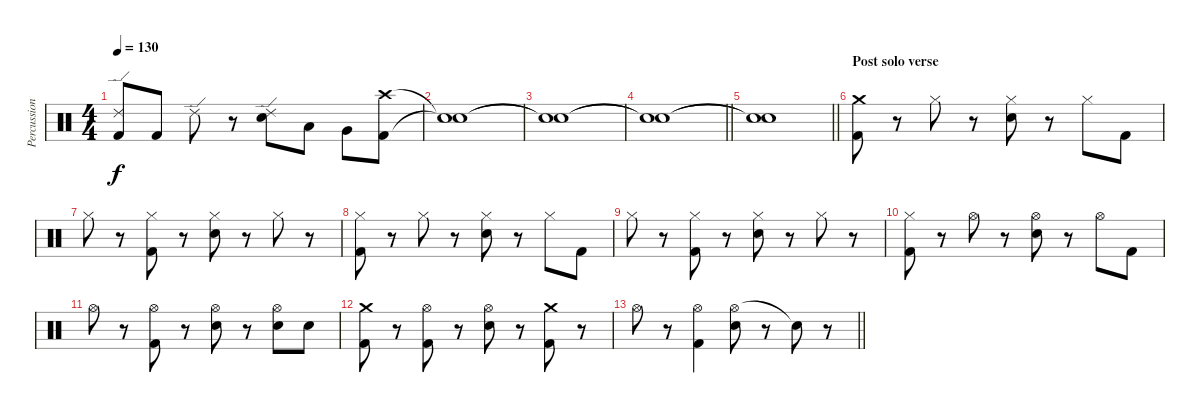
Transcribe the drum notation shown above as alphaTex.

\track ("Percussion" "Percussion") {instrument percussion}
\staff {score}
\articulation defaults
\ts (4 4)
\tempo 130
\clef neutral
\ks c
("Ride (edge) 2" "Kick (hit) 2").8{dy f} "Kick (hit) 2".8 "Ride (edge) 2".8 r.8 ("Ride (edge) 2" "Electric Snare (hit)").8 "Low Tom (hit)".8 "Very Low Tom (hit)".8 ("Crash high (hit)" "Kick (hit) 2").8 |
("Snare (hit)"{t} "Snare (hit)"{t}).1 |
("Snare (hit)"{t} "Snare (hit)"{t}).1 |
\barLineRight lightlight
("Snare (hit)"{t} "Snare (hit)"{t}).1 |
\barLineRight lightlight
("Snare (hit)"{t} "Snare (hit)"{t}).1 |
\section ("" "Post solo verse")
("Crash medium (hit)" "Kick (hit) 2").8 r.8 "Hi-Hat (closed)".8 r.8 ("Hi-Hat (closed)" "Electric Snare (hit)").8 r.8 "Hi-Hat (closed)".8 "Kick (hit) 2".8 |
"Hi-Hat (closed)".8 r.8 ("Hi-Hat (closed)" "Kick (hit) 2").8 r.8 ("Hi-Hat (closed)" "Electric Snare (hit)").8 r.8 "Hi-Hat (closed)".8 r.8 |
("Hi-Hat (closed)" "Kick (hit) 2").8 r.8 "Hi-Hat (closed)".8 r.8 ("Hi-Hat (closed)" "Electric Snare (hit)").8 r.8 "Hi-Hat (closed)".8 "Kick (hit) 2".8 |
"Hi-Hat (closed)".8 r.8 ("Hi-Hat (closed)" "Kick (hit) 2").8 r.8 ("Hi-Hat (closed)" "Electric Snare (hit)").8 r.8 "Hi-Hat (closed)".8 r.8 |
("Hi-Hat (closed)" "Kick (hit) 2").8 r.8 "Hi-Hat (open)".8 r.8 ("Hi-Hat (open)" "Electric Snare (hit)").8 r.8 "Hi-Hat (open)".8 "Kick (hit) 2".8 |
"Hi-Hat (open)".8 r.8 ("Hi-Hat (open)" "Kick (hit) 2").8 r.8 ("Hi-Hat (open)" "Electric Snare (hit)").8 r.8 ("Hi-Hat (open)" "Electric Snare (hit)").8 "Electric Snare (hit)".8 |
("Crash medium (hit)" "Kick (hit) 2").8 r.8 ("Hi-Hat (open)" "Kick (hit) 2").8 r.8 ("Hi-Hat (open)" "Electric Snare (hit)").8 r.8 ("Crash medium (hit)" "Kick (hit) 2").8 r.8 |
\barLineRight lightlight "Hi-Hat (open)".8
r.8 ("Hi-Hat (open)" "Kick (hit) 2").4 ("Hi-Hat (open)" "Electric Snare (hit)").8 r.8 "Snare (hit)"{t}.8 r.8
